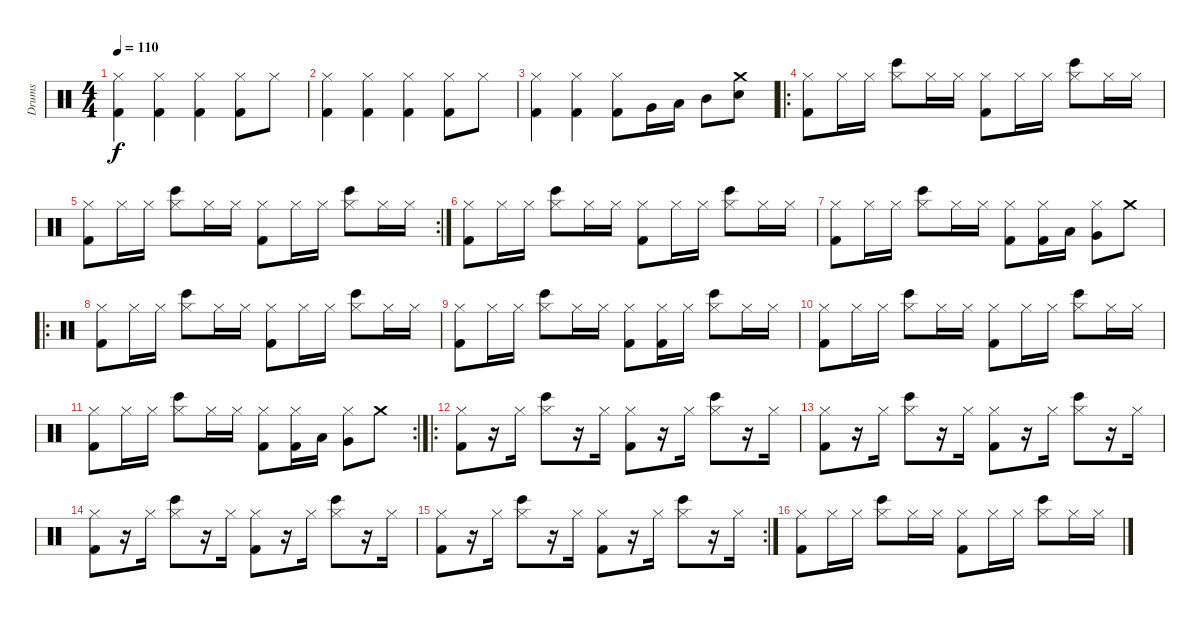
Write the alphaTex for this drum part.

\track ("Drums" "Drums") {instrument percussion}
\staff {score}
\articulation defaults
\ts (4 4)
\tempo 110
\clef neutral
\ks c
("Hi-Hat (closed)" "Kick (hit) 2").4{dy f} ("Hi-Hat (closed)" "Kick (hit) 2").4 ("Hi-Hat (closed)" "Kick (hit) 2").4 ("Hi-Hat (closed)" "Kick (hit) 2").8 "Hi-Hat (closed)".8 |
("Hi-Hat (closed)" "Kick (hit) 2").4 ("Hi-Hat (closed)" "Kick (hit) 2").4 ("Hi-Hat (closed)" "Kick (hit) 2").4 ("Hi-Hat (closed)" "Kick (hit) 2").8 "Hi-Hat (closed)".8 |
("Hi-Hat (closed)" "Kick (hit) 2").4 ("Hi-Hat (closed)" "Kick (hit) 2").4 ("Hi-Hat (closed)" "Kick (hit) 2").8 "Very Low Tom (hit)".16 "Low Tom (hit)".16 "Mid Tom (hit)".8 ("Crash medium (hit)" "Snare (hit) 2").8 |
\ro
("Hi-Hat (closed)" "Kick (hit) 2").8 "Hi-Hat (closed)".16 "Hi-Hat (closed)".16 ("Hi-Hat (closed)" "Bongo High (hit)").8 "Hi-Hat (closed)".16 "Hi-Hat (closed)".16 ("Hi-Hat (closed)" "Kick (hit) 2").8 "Hi-Hat (closed)".16 "Hi-Hat (closed)".16 ("Hi-Hat (closed)" "Bongo High (hit)").8 "Hi-Hat (closed)".16 "Hi-Hat (closed)".16 |
\rc 2
("Hi-Hat (closed)" "Kick (hit) 2").8 "Hi-Hat (closed)".16 "Hi-Hat (closed)".16 ("Hi-Hat (closed)" "Bongo High (hit)").8 "Hi-Hat (closed)".16 "Hi-Hat (closed)".16 ("Hi-Hat (closed)" "Kick (hit) 2").8 "Hi-Hat (closed)".16 "Hi-Hat (closed)".16 ("Hi-Hat (closed)" "Bongo High (hit)").8 "Hi-Hat (closed)".16 "Hi-Hat (closed)".16 |
("Hi-Hat (closed)" "Kick (hit) 2").8 "Hi-Hat (closed)".16 "Hi-Hat (closed)".16 ("Hi-Hat (closed)" "Bongo High (hit)").8 "Hi-Hat (closed)".16 "Hi-Hat (closed)".16 ("Hi-Hat (closed)" "Kick (hit) 2").8 "Hi-Hat (closed)".16 "Hi-Hat (closed)".16 ("Hi-Hat (closed)" "Bongo High (hit)").8 "Hi-Hat (closed)".16 "Hi-Hat (closed)".16 |
("Hi-Hat (closed)" "Kick (hit) 2").8 "Hi-Hat (closed)".16 "Hi-Hat (closed)".16 ("Hi-Hat (closed)" "Bongo High (hit)").8 "Hi-Hat (closed)".16 "Hi-Hat (closed)".16 ("Hi-Hat (closed)" "Kick (hit) 2").8 ("Hi-Hat (closed)" "Kick (hit) 2").16 "Low Floor Tom (hit)".16 ("Hi-Hat (closed)" "Very Low Tom (hit)").8 "Crash medium (hit)".8 |
\ro
("Hi-Hat (closed)" "Kick (hit) 2").8 "Hi-Hat (closed)".16 "Hi-Hat (closed)".16 ("Hi-Hat (closed)" "Bongo High (hit)").8 "Hi-Hat (closed)".16 "Hi-Hat (closed)".16 ("Hi-Hat (closed)" "Kick (hit) 2").8 "Hi-Hat (closed)".16 "Hi-Hat (closed)".16 ("Hi-Hat (closed)" "Bongo High (hit)").8 "Hi-Hat (closed)".16 "Hi-Hat (closed)".16 |
("Hi-Hat (closed)" "Kick (hit) 2").8 "Hi-Hat (closed)".16 "Hi-Hat (closed)".16 ("Hi-Hat (closed)" "Bongo High (hit)").8 "Hi-Hat (closed)".16 "Hi-Hat (closed)".16 ("Hi-Hat (closed)" "Kick (hit) 2").8 ("Hi-Hat (closed)" "Kick (hit) 2").16 "Hi-Hat (closed)".16 ("Hi-Hat (closed)" "Bongo High (hit)").8 "Hi-Hat (closed)".16 "Hi-Hat (closed)".16 |
("Hi-Hat (closed)" "Kick (hit) 2").8 "Hi-Hat (closed)".16 "Hi-Hat (closed)".16 ("Hi-Hat (closed)" "Bongo High (hit)").8 "Hi-Hat (closed)".16 "Hi-Hat (closed)".16 ("Hi-Hat (closed)" "Kick (hit) 2").8 "Hi-Hat (closed)".16 "Hi-Hat (closed)".16 ("Hi-Hat (closed)" "Bongo High (hit)").8 "Hi-Hat (closed)".16 "Hi-Hat (closed)".16 |
\rc 2
("Hi-Hat (closed)" "Kick (hit) 2").8 "Hi-Hat (closed)".16 "Hi-Hat (closed)".16 ("Hi-Hat (closed)" "Bongo High (hit)").8 "Hi-Hat (closed)".16 "Hi-Hat (closed)".16 ("Hi-Hat (closed)" "Kick (hit) 2").8 ("Hi-Hat (closed)" "Kick (hit) 2").16 "Low Floor Tom (hit)".16 ("Hi-Hat (closed)" "Very Low Tom (hit)").8 "Crash medium (hit)".8 |
\ro
("Hi-Hat (closed)" "Kick (hit) 2").8 r.16 "Hi-Hat (closed)".16 ("Hi-Hat (closed)" "Bongo High (hit)").8 r.16 "Hi-Hat (closed)".16 ("Hi-Hat (closed)" "Kick (hit) 2").8 r.16 "Hi-Hat (closed)".16 ("Hi-Hat (closed)" "Bongo High (hit)").8 r.16 "Hi-Hat (closed)".16 |
("Hi-Hat (closed)" "Kick (hit) 2").8 r.16 "Hi-Hat (closed)".16 ("Hi-Hat (closed)" "Bongo High (hit)").8 r.16 "Hi-Hat (closed)".16 ("Hi-Hat (closed)" "Kick (hit) 2").8 r.16 "Hi-Hat (closed)".16 ("Hi-Hat (closed)" "Bongo High (hit)").8 r.16 "Hi-Hat (closed)".16 |
("Hi-Hat (closed)" "Kick (hit) 2").8 r.16 "Hi-Hat (closed)".16 ("Hi-Hat (closed)" "Bongo High (hit)").8 r.16 "Hi-Hat (closed)".16 ("Hi-Hat (closed)" "Kick (hit) 2").8 r.16 "Hi-Hat (closed)".16 ("Hi-Hat (closed)" "Bongo High (hit)").8 r.16 "Hi-Hat (closed)".16 |
\rc 2
("Hi-Hat (closed)" "Kick (hit) 2").8 r.16 "Hi-Hat (closed)".16 ("Hi-Hat (closed)" "Bongo High (hit)").8 r.16 "Hi-Hat (closed)".16 ("Hi-Hat (closed)" "Kick (hit) 2").8 r.16 "Hi-Hat (closed)".16 ("Hi-Hat (closed)" "Bongo High (hit)").8 r.16 "Hi-Hat (closed)".16 |
("Hi-Hat (closed)" "Kick (hit) 2").8 "Hi-Hat (closed)".16 "Hi-Hat (closed)".16 ("Hi-Hat (closed)" "Bongo High (hit)").8 "Hi-Hat (closed)".16 "Hi-Hat (closed)".16 ("Hi-Hat (closed)" "Kick (hit) 2").8 "Hi-Hat (closed)".16 "Hi-Hat (closed)".16 ("Hi-Hat (closed)" "Bongo High (hit)").8 "Hi-Hat (closed)".16 "Hi-Hat (closed)".16
